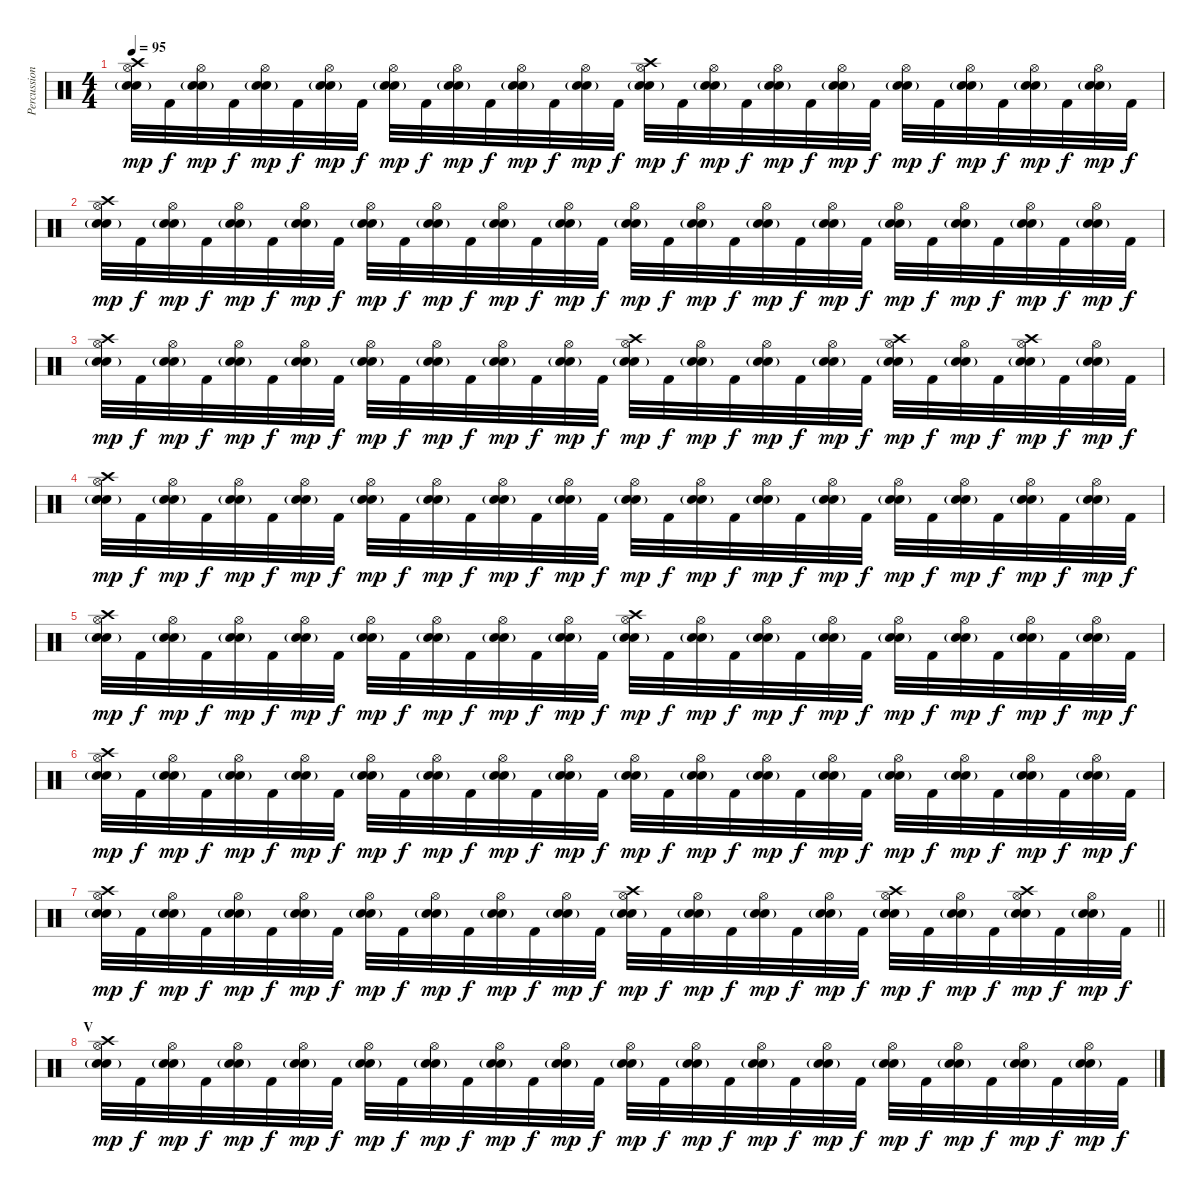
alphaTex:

\track ("Percussion" "Percussion") {instrument percussion}
\staff {score}
\articulation defaults
\ts (4 4)
\tempo 95
\clef neutral
\ks c
("Crash high (hit)" "Electric Snare (hit)" "Snare (hit) 2"{g} "Hi-Hat (open)").32{dy mp} "Kick (hit) 2".32{dy f} ("Electric Snare (hit)" "Snare (hit) 2"{g} "Hi-Hat (open)").32{dy mp} "Kick (hit) 2".32{dy f} ("Electric Snare (hit)" "Snare (hit) 2"{g} "Hi-Hat (open)").32{dy mp} "Kick (hit) 2".32{dy f} ("Electric Snare (hit)" "Snare (hit) 2"{g} "Hi-Hat (open)").32{dy mp} "Kick (hit) 2".32{dy f} ("Electric Snare (hit)" "Snare (hit) 2"{g} "Hi-Hat (open)").32{dy mp} "Kick (hit) 2".32{dy f} ("Electric Snare (hit)" "Snare (hit) 2"{g} "Hi-Hat (open)").32{dy mp} "Kick (hit) 2".32{dy f} ("Electric Snare (hit)" "Snare (hit) 2"{g} "Hi-Hat (open)").32{dy mp} "Kick (hit) 2".32{dy f} ("Electric Snare (hit)" "Snare (hit) 2"{g} "Hi-Hat (open)").32{dy mp} "Kick (hit) 2".32{dy f} ("Crash high (hit)" "Electric Snare (hit)" "Snare (hit) 2"{g} "Hi-Hat (open)").32{dy mp} "Kick (hit) 2".32{dy f} ("Electric Snare (hit)" "Snare (hit) 2"{g} "Hi-Hat (open)").32{dy mp} "Kick (hit) 2".32{dy f} ("Electric Snare (hit)" "Snare (hit) 2"{g} "Hi-Hat (open)").32{dy mp} "Kick (hit) 2".32{dy f} ("Electric Snare (hit)" "Snare (hit) 2"{g} "Hi-Hat (open)").32{dy mp} "Kick (hit) 2".32{dy f} ("Electric Snare (hit)" "Snare (hit) 2"{g} "Hi-Hat (open)").32{dy mp} "Kick (hit) 2".32{dy f} ("Electric Snare (hit)" "Snare (hit) 2"{g} "Hi-Hat (open)").32{dy mp} "Kick (hit) 2".32{dy f} ("Electric Snare (hit)" "Snare (hit) 2"{g} "Hi-Hat (open)").32{dy mp} "Kick (hit) 2".32{dy f} ("Electric Snare (hit)" "Snare (hit) 2"{g} "Hi-Hat (open)").32{dy mp} "Kick (hit) 2".32{dy f} |
("Crash high (hit)" "Electric Snare (hit)" "Snare (hit) 2"{g} "Hi-Hat (open)").32{dy mp} "Kick (hit) 2".32{dy f} ("Electric Snare (hit)" "Snare (hit) 2"{g} "Hi-Hat (open)").32{dy mp} "Kick (hit) 2".32{dy f} ("Electric Snare (hit)" "Snare (hit) 2"{g} "Hi-Hat (open)").32{dy mp} "Kick (hit) 2".32{dy f} ("Electric Snare (hit)" "Snare (hit) 2"{g} "Hi-Hat (open)").32{dy mp} "Kick (hit) 2".32{dy f} ("Electric Snare (hit)" "Snare (hit) 2"{g} "Hi-Hat (open)").32{dy mp} "Kick (hit) 2".32{dy f} ("Electric Snare (hit)" "Snare (hit) 2"{g} "Hi-Hat (open)").32{dy mp} "Kick (hit) 2".32{dy f} ("Electric Snare (hit)" "Snare (hit) 2"{g} "Hi-Hat (open)").32{dy mp} "Kick (hit) 2".32{dy f} ("Electric Snare (hit)" "Snare (hit) 2"{g} "Hi-Hat (open)").32{dy mp} "Kick (hit) 2".32{dy f} ("Electric Snare (hit)" "Snare (hit) 2"{g} "Hi-Hat (open)").32{dy mp} "Kick (hit) 2".32{dy f} ("Electric Snare (hit)" "Snare (hit) 2"{g} "Hi-Hat (open)").32{dy mp} "Kick (hit) 2".32{dy f} ("Electric Snare (hit)" "Snare (hit) 2"{g} "Hi-Hat (open)").32{dy mp} "Kick (hit) 2".32{dy f} ("Electric Snare (hit)" "Snare (hit) 2"{g} "Hi-Hat (open)").32{dy mp} "Kick (hit) 2".32{dy f} ("Electric Snare (hit)" "Snare (hit) 2"{g} "Hi-Hat (open)").32{dy mp} "Kick (hit) 2".32{dy f} ("Electric Snare (hit)" "Snare (hit) 2"{g} "Hi-Hat (open)").32{dy mp} "Kick (hit) 2".32{dy f} ("Electric Snare (hit)" "Snare (hit) 2"{g} "Hi-Hat (open)").32{dy mp} "Kick (hit) 2".32{dy f} ("Electric Snare (hit)" "Snare (hit) 2"{g} "Hi-Hat (open)").32{dy mp} "Kick (hit) 2".32{dy f} |
("Crash high (hit)" "Electric Snare (hit)" "Snare (hit) 2"{g} "Hi-Hat (open)").32{dy mp} "Kick (hit) 2".32{dy f} ("Electric Snare (hit)" "Snare (hit) 2"{g} "Hi-Hat (open)").32{dy mp} "Kick (hit) 2".32{dy f} ("Electric Snare (hit)" "Snare (hit) 2"{g} "Hi-Hat (open)").32{dy mp} "Kick (hit) 2".32{dy f} ("Electric Snare (hit)" "Snare (hit) 2"{g} "Hi-Hat (open)").32{dy mp} "Kick (hit) 2".32{dy f} ("Electric Snare (hit)" "Snare (hit) 2"{g} "Hi-Hat (open)").32{dy mp} "Kick (hit) 2".32{dy f} ("Electric Snare (hit)" "Snare (hit) 2"{g} "Hi-Hat (open)").32{dy mp} "Kick (hit) 2".32{dy f} ("Electric Snare (hit)" "Snare (hit) 2"{g} "Hi-Hat (open)").32{dy mp} "Kick (hit) 2".32{dy f} ("Electric Snare (hit)" "Snare (hit) 2"{g} "Hi-Hat (open)").32{dy mp} "Kick (hit) 2".32{dy f} ("Crash high (hit)" "Electric Snare (hit)" "Snare (hit) 2"{g} "Hi-Hat (open)").32{dy mp} "Kick (hit) 2".32{dy f} ("Electric Snare (hit)" "Snare (hit) 2"{g} "Hi-Hat (open)").32{dy mp} "Kick (hit) 2".32{dy f} ("Electric Snare (hit)" "Snare (hit) 2"{g} "Hi-Hat (open)").32{dy mp} "Kick (hit) 2".32{dy f} ("Electric Snare (hit)" "Snare (hit) 2"{g} "Hi-Hat (open)").32{dy mp} "Kick (hit) 2".32{dy f} ("Crash high (hit)" "Electric Snare (hit)" "Snare (hit) 2"{g} "Hi-Hat (open)").32{dy mp} "Kick (hit) 2".32{dy f} ("Electric Snare (hit)" "Snare (hit) 2"{g} "Hi-Hat (open)").32{dy mp} "Kick (hit) 2".32{dy f} ("Crash high (hit)" "Electric Snare (hit)" "Snare (hit) 2"{g} "Hi-Hat (open)").32{dy mp} "Kick (hit) 2".32{dy f} ("Electric Snare (hit)" "Snare (hit) 2"{g} "Hi-Hat (open)").32{dy mp} "Kick (hit) 2".32{dy f} |
("Crash high (hit)" "Electric Snare (hit)" "Snare (hit) 2"{g} "Hi-Hat (open)").32{dy mp} "Kick (hit) 2".32{dy f} ("Electric Snare (hit)" "Snare (hit) 2"{g} "Hi-Hat (open)").32{dy mp} "Kick (hit) 2".32{dy f} ("Electric Snare (hit)" "Snare (hit) 2"{g} "Hi-Hat (open)").32{dy mp} "Kick (hit) 2".32{dy f} ("Electric Snare (hit)" "Snare (hit) 2"{g} "Hi-Hat (open)").32{dy mp} "Kick (hit) 2".32{dy f} ("Electric Snare (hit)" "Snare (hit) 2"{g} "Hi-Hat (open)").32{dy mp} "Kick (hit) 2".32{dy f} ("Electric Snare (hit)" "Snare (hit) 2"{g} "Hi-Hat (open)").32{dy mp} "Kick (hit) 2".32{dy f} ("Electric Snare (hit)" "Snare (hit) 2"{g} "Hi-Hat (open)").32{dy mp} "Kick (hit) 2".32{dy f} ("Electric Snare (hit)" "Snare (hit) 2"{g} "Hi-Hat (open)").32{dy mp} "Kick (hit) 2".32{dy f} ("Electric Snare (hit)" "Snare (hit) 2"{g} "Hi-Hat (open)").32{dy mp} "Kick (hit) 2".32{dy f} ("Electric Snare (hit)" "Snare (hit) 2"{g} "Hi-Hat (open)").32{dy mp} "Kick (hit) 2".32{dy f} ("Electric Snare (hit)" "Snare (hit) 2"{g} "Hi-Hat (open)").32{dy mp} "Kick (hit) 2".32{dy f} ("Electric Snare (hit)" "Snare (hit) 2"{g} "Hi-Hat (open)").32{dy mp} "Kick (hit) 2".32{dy f} ("Electric Snare (hit)" "Snare (hit) 2"{g} "Hi-Hat (open)").32{dy mp} "Kick (hit) 2".32{dy f} ("Electric Snare (hit)" "Snare (hit) 2"{g} "Hi-Hat (open)").32{dy mp} "Kick (hit) 2".32{dy f} ("Electric Snare (hit)" "Snare (hit) 2"{g} "Hi-Hat (open)").32{dy mp} "Kick (hit) 2".32{dy f} ("Electric Snare (hit)" "Snare (hit) 2"{g} "Hi-Hat (open)").32{dy mp} "Kick (hit) 2".32{dy f} |
("Crash high (hit)" "Electric Snare (hit)" "Snare (hit) 2"{g} "Hi-Hat (open)").32{dy mp} "Kick (hit) 2".32{dy f} ("Electric Snare (hit)" "Snare (hit) 2"{g} "Hi-Hat (open)").32{dy mp} "Kick (hit) 2".32{dy f} ("Electric Snare (hit)" "Snare (hit) 2"{g} "Hi-Hat (open)").32{dy mp} "Kick (hit) 2".32{dy f} ("Electric Snare (hit)" "Snare (hit) 2"{g} "Hi-Hat (open)").32{dy mp} "Kick (hit) 2".32{dy f} ("Electric Snare (hit)" "Snare (hit) 2"{g} "Hi-Hat (open)").32{dy mp} "Kick (hit) 2".32{dy f} ("Electric Snare (hit)" "Snare (hit) 2"{g} "Hi-Hat (open)").32{dy mp} "Kick (hit) 2".32{dy f} ("Electric Snare (hit)" "Snare (hit) 2"{g} "Hi-Hat (open)").32{dy mp} "Kick (hit) 2".32{dy f} ("Electric Snare (hit)" "Snare (hit) 2"{g} "Hi-Hat (open)").32{dy mp} "Kick (hit) 2".32{dy f} ("Crash high (hit)" "Electric Snare (hit)" "Snare (hit) 2"{g} "Hi-Hat (open)").32{dy mp} "Kick (hit) 2".32{dy f} ("Electric Snare (hit)" "Snare (hit) 2"{g} "Hi-Hat (open)").32{dy mp} "Kick (hit) 2".32{dy f} ("Electric Snare (hit)" "Snare (hit) 2"{g} "Hi-Hat (open)").32{dy mp} "Kick (hit) 2".32{dy f} ("Electric Snare (hit)" "Snare (hit) 2"{g} "Hi-Hat (open)").32{dy mp} "Kick (hit) 2".32{dy f} ("Electric Snare (hit)" "Snare (hit) 2"{g} "Hi-Hat (open)").32{dy mp} "Kick (hit) 2".32{dy f} ("Electric Snare (hit)" "Snare (hit) 2"{g} "Hi-Hat (open)").32{dy mp} "Kick (hit) 2".32{dy f} ("Electric Snare (hit)" "Snare (hit) 2"{g} "Hi-Hat (open)").32{dy mp} "Kick (hit) 2".32{dy f} ("Electric Snare (hit)" "Snare (hit) 2"{g} "Hi-Hat (open)").32{dy mp} "Kick (hit) 2".32{dy f} |
("Crash high (hit)" "Electric Snare (hit)" "Snare (hit) 2"{g} "Hi-Hat (open)").32{dy mp} "Kick (hit) 2".32{dy f} ("Electric Snare (hit)" "Snare (hit) 2"{g} "Hi-Hat (open)").32{dy mp} "Kick (hit) 2".32{dy f} ("Electric Snare (hit)" "Snare (hit) 2"{g} "Hi-Hat (open)").32{dy mp} "Kick (hit) 2".32{dy f} ("Electric Snare (hit)" "Snare (hit) 2"{g} "Hi-Hat (open)").32{dy mp} "Kick (hit) 2".32{dy f} ("Electric Snare (hit)" "Snare (hit) 2"{g} "Hi-Hat (open)").32{dy mp} "Kick (hit) 2".32{dy f} ("Electric Snare (hit)" "Snare (hit) 2"{g} "Hi-Hat (open)").32{dy mp} "Kick (hit) 2".32{dy f} ("Electric Snare (hit)" "Snare (hit) 2"{g} "Hi-Hat (open)").32{dy mp} "Kick (hit) 2".32{dy f} ("Electric Snare (hit)" "Snare (hit) 2"{g} "Hi-Hat (open)").32{dy mp} "Kick (hit) 2".32{dy f} ("Electric Snare (hit)" "Snare (hit) 2"{g} "Hi-Hat (open)").32{dy mp} "Kick (hit) 2".32{dy f} ("Electric Snare (hit)" "Snare (hit) 2"{g} "Hi-Hat (open)").32{dy mp} "Kick (hit) 2".32{dy f} ("Electric Snare (hit)" "Snare (hit) 2"{g} "Hi-Hat (open)").32{dy mp} "Kick (hit) 2".32{dy f} ("Electric Snare (hit)" "Snare (hit) 2"{g} "Hi-Hat (open)").32{dy mp} "Kick (hit) 2".32{dy f} ("Electric Snare (hit)" "Snare (hit) 2"{g} "Hi-Hat (open)").32{dy mp} "Kick (hit) 2".32{dy f} ("Electric Snare (hit)" "Snare (hit) 2"{g} "Hi-Hat (open)").32{dy mp} "Kick (hit) 2".32{dy f} ("Electric Snare (hit)" "Snare (hit) 2"{g} "Hi-Hat (open)").32{dy mp} "Kick (hit) 2".32{dy f} ("Electric Snare (hit)" "Snare (hit) 2"{g} "Hi-Hat (open)").32{dy mp} "Kick (hit) 2".32{dy f} |
\barLineRight lightlight
("Crash high (hit)" "Electric Snare (hit)" "Snare (hit) 2"{g} "Hi-Hat (open)").32{dy mp} "Kick (hit) 2".32{dy f} ("Electric Snare (hit)" "Snare (hit) 2"{g} "Hi-Hat (open)").32{dy mp} "Kick (hit) 2".32{dy f} ("Electric Snare (hit)" "Snare (hit) 2"{g} "Hi-Hat (open)").32{dy mp} "Kick (hit) 2".32{dy f} ("Electric Snare (hit)" "Snare (hit) 2"{g} "Hi-Hat (open)").32{dy mp} "Kick (hit) 2".32{dy f} ("Electric Snare (hit)" "Snare (hit) 2"{g} "Hi-Hat (open)").32{dy mp} "Kick (hit) 2".32{dy f} ("Electric Snare (hit)" "Snare (hit) 2"{g} "Hi-Hat (open)").32{dy mp} "Kick (hit) 2".32{dy f} ("Electric Snare (hit)" "Snare (hit) 2"{g} "Hi-Hat (open)").32{dy mp} "Kick (hit) 2".32{dy f} ("Electric Snare (hit)" "Snare (hit) 2"{g} "Hi-Hat (open)").32{dy mp} "Kick (hit) 2".32{dy f} ("Crash high (hit)" "Electric Snare (hit)" "Snare (hit) 2"{g} "Hi-Hat (open)").32{dy mp} "Kick (hit) 2".32{dy f} ("Electric Snare (hit)" "Snare (hit) 2"{g} "Hi-Hat (open)").32{dy mp} "Kick (hit) 2".32{dy f} ("Electric Snare (hit)" "Snare (hit) 2"{g} "Hi-Hat (open)").32{dy mp} "Kick (hit) 2".32{dy f} ("Electric Snare (hit)" "Snare (hit) 2"{g} "Hi-Hat (open)").32{dy mp} "Kick (hit) 2".32{dy f} ("Crash high (hit)" "Electric Snare (hit)" "Snare (hit) 2"{g} "Hi-Hat (open)").32{dy mp} "Kick (hit) 2".32{dy f} ("Electric Snare (hit)" "Snare (hit) 2"{g} "Hi-Hat (open)").32{dy mp} "Kick (hit) 2".32{dy f} ("Crash high (hit)" "Electric Snare (hit)" "Snare (hit) 2"{g} "Hi-Hat (open)").32{dy mp} "Kick (hit) 2".32{dy f} ("Electric Snare (hit)" "Snare (hit) 2"{g} "Hi-Hat (open)").32{dy mp} "Kick (hit) 2".32{dy f} |
\section ("" "V")
("Crash high (hit)" "Electric Snare (hit)" "Snare (hit) 2"{g} "Hi-Hat (open)").32{dy mp} "Kick (hit) 2".32{dy f} ("Electric Snare (hit)" "Snare (hit) 2"{g} "Hi-Hat (open)").32{dy mp} "Kick (hit) 2".32{dy f} ("Electric Snare (hit)" "Snare (hit) 2"{g} "Hi-Hat (open)").32{dy mp} "Kick (hit) 2".32{dy f} ("Electric Snare (hit)" "Snare (hit) 2"{g} "Hi-Hat (open)").32{dy mp} "Kick (hit) 2".32{dy f} ("Electric Snare (hit)" "Snare (hit) 2"{g} "Hi-Hat (open)").32{dy mp} "Kick (hit) 2".32{dy f} ("Electric Snare (hit)" "Snare (hit) 2"{g} "Hi-Hat (open)").32{dy mp} "Kick (hit) 2".32{dy f} ("Electric Snare (hit)" "Snare (hit) 2"{g} "Hi-Hat (open)").32{dy mp} "Kick (hit) 2".32{dy f} ("Electric Snare (hit)" "Snare (hit) 2"{g} "Hi-Hat (open)").32{dy mp} "Kick (hit) 2".32{dy f} ("Electric Snare (hit)" "Snare (hit) 2"{g} "Hi-Hat (open)").32{dy mp} "Kick (hit) 2".32{dy f} ("Electric Snare (hit)" "Snare (hit) 2"{g} "Hi-Hat (open)").32{dy mp} "Kick (hit) 2".32{dy f} ("Electric Snare (hit)" "Snare (hit) 2"{g} "Hi-Hat (open)").32{dy mp} "Kick (hit) 2".32{dy f} ("Electric Snare (hit)" "Snare (hit) 2"{g} "Hi-Hat (open)").32{dy mp} "Kick (hit) 2".32{dy f} ("Electric Snare (hit)" "Snare (hit) 2"{g} "Hi-Hat (open)").32{dy mp} "Kick (hit) 2".32{dy f} ("Electric Snare (hit)" "Snare (hit) 2"{g} "Hi-Hat (open)").32{dy mp} "Kick (hit) 2".32{dy f} ("Electric Snare (hit)" "Snare (hit) 2"{g} "Hi-Hat (open)").32{dy mp} "Kick (hit) 2".32{dy f} ("Electric Snare (hit)" "Snare (hit) 2"{g} "Hi-Hat (open)").32{dy mp} "Kick (hit) 2".32{dy f}
